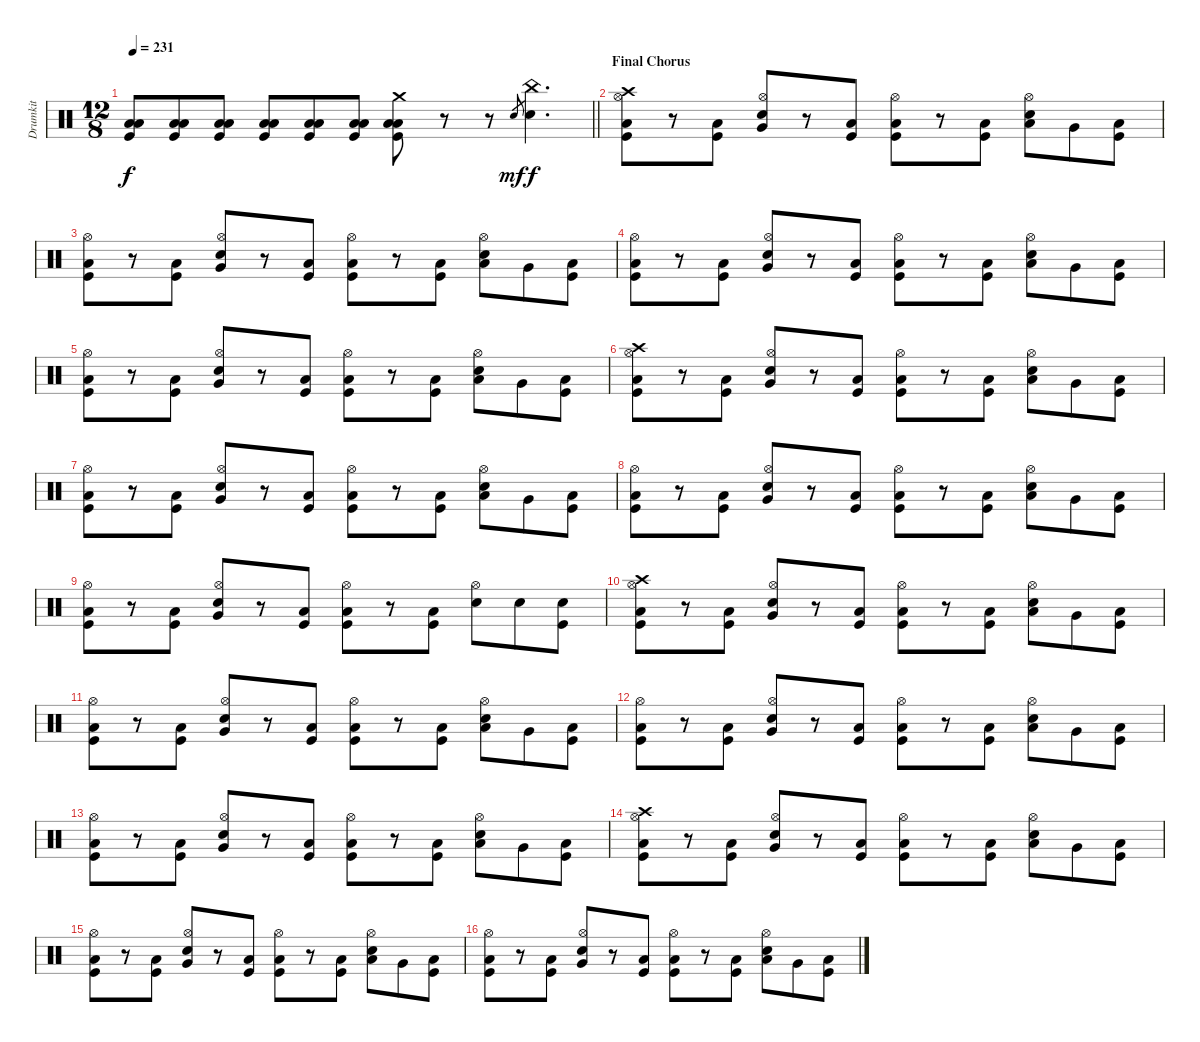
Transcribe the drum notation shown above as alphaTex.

\track ("Drumkit" "Drumkit") {instrument percussion}
\staff {score}
\articulation defaults
\ts (12 8)
\tempo 231
\clef neutral
\barLineRight lightlight
\ks c
("Low Tom (hit)" "Low Floor Tom (hit)" "Kick (hit)").8{dy f} ("Low Tom (hit)" "Low Floor Tom (hit)" "Kick (hit)").8 ("Low Tom (hit)" "Low Floor Tom (hit)" "Kick (hit)").8 ("Low Tom (hit)" "Low Floor Tom (hit)" "Kick (hit)").8 ("Low Tom (hit)" "Low Floor Tom (hit)" "Kick (hit)").8 ("Low Tom (hit)" "Low Floor Tom (hit)" "Kick (hit)").8 ("Crash medium (hit)" "Low Tom (hit)" "Low Floor Tom (hit)" "Kick (hit)").8 r.8 r.8 "Snare (hit)".8{gr dy mf} ("China (hit)" "Snare (hit) 2").4{d dy f} |
\section ("" "Final Chorus")
("Crash high (hit)" "Hi-Hat (open)" "Low Floor Tom (hit)" "Kick (hit)").8 r.8 ("Low Floor Tom (hit)" "Kick (hit)").8 ("Hi-Hat (open)" "Very Low Tom (hit)" "Snare (hit) 2").8 r.8 ("Low Floor Tom (hit)" "Kick (hit)").8 ("Hi-Hat (open)" "Low Floor Tom (hit)" "Kick (hit)").8 r.8 ("Low Floor Tom (hit)" "Kick (hit)").8 ("Hi-Hat (open)" "Low Tom (hit)" "Snare (hit) 2").8 "Very Low Tom (hit)".8 ("Low Floor Tom (hit)" "Kick (hit)").8 |
("Hi-Hat (open)" "Low Floor Tom (hit)" "Kick (hit)").8 r.8 ("Low Floor Tom (hit)" "Kick (hit)").8 ("Hi-Hat (open)" "Very Low Tom (hit)" "Snare (hit) 2").8 r.8 ("Low Floor Tom (hit)" "Kick (hit)").8 ("Hi-Hat (open)" "Low Floor Tom (hit)" "Kick (hit)").8 r.8 ("Low Floor Tom (hit)" "Kick (hit)").8 ("Hi-Hat (open)" "Low Tom (hit)" "Snare (hit) 2").8 "Very Low Tom (hit)".8 ("Low Floor Tom (hit)" "Kick (hit)").8 |
("Hi-Hat (open)" "Low Floor Tom (hit)" "Kick (hit)").8 r.8 ("Low Floor Tom (hit)" "Kick (hit)").8 ("Hi-Hat (open)" "Very Low Tom (hit)" "Snare (hit) 2").8 r.8 ("Low Floor Tom (hit)" "Kick (hit)").8 ("Hi-Hat (open)" "Low Floor Tom (hit)" "Kick (hit)").8 r.8 ("Low Floor Tom (hit)" "Kick (hit)").8 ("Hi-Hat (open)" "Low Tom (hit)" "Snare (hit) 2").8 "Very Low Tom (hit)".8 ("Low Floor Tom (hit)" "Kick (hit)").8 |
("Hi-Hat (open)" "Low Floor Tom (hit)" "Kick (hit)").8 r.8 ("Low Floor Tom (hit)" "Kick (hit)").8 ("Hi-Hat (open)" "Very Low Tom (hit)" "Snare (hit) 2").8 r.8 ("Low Floor Tom (hit)" "Kick (hit)").8 ("Hi-Hat (open)" "Low Floor Tom (hit)" "Kick (hit)").8 r.8 ("Low Floor Tom (hit)" "Kick (hit)").8 ("Hi-Hat (open)" "Low Tom (hit)" "Snare (hit) 2").8 "Very Low Tom (hit)".8 ("Low Floor Tom (hit)" "Kick (hit)").8 |
("Crash high (hit)" "Hi-Hat (open)" "Low Floor Tom (hit)" "Kick (hit)").8 r.8 ("Low Floor Tom (hit)" "Kick (hit)").8 ("Hi-Hat (open)" "Very Low Tom (hit)" "Snare (hit) 2").8 r.8 ("Low Floor Tom (hit)" "Kick (hit)").8 ("Hi-Hat (open)" "Low Floor Tom (hit)" "Kick (hit)").8 r.8 ("Low Floor Tom (hit)" "Kick (hit)").8 ("Hi-Hat (open)" "Low Tom (hit)" "Snare (hit) 2").8 "Very Low Tom (hit)".8 ("Low Floor Tom (hit)" "Kick (hit)").8 |
("Hi-Hat (open)" "Low Floor Tom (hit)" "Kick (hit)").8 r.8 ("Low Floor Tom (hit)" "Kick (hit)").8 ("Hi-Hat (open)" "Very Low Tom (hit)" "Snare (hit) 2").8 r.8 ("Low Floor Tom (hit)" "Kick (hit)").8 ("Hi-Hat (open)" "Low Floor Tom (hit)" "Kick (hit)").8 r.8 ("Low Floor Tom (hit)" "Kick (hit)").8 ("Hi-Hat (open)" "Low Tom (hit)" "Snare (hit) 2").8 "Very Low Tom (hit)".8 ("Low Floor Tom (hit)" "Kick (hit)").8 |
("Hi-Hat (open)" "Low Floor Tom (hit)" "Kick (hit)").8 r.8 ("Low Floor Tom (hit)" "Kick (hit)").8 ("Hi-Hat (open)" "Very Low Tom (hit)" "Snare (hit) 2").8 r.8 ("Low Floor Tom (hit)" "Kick (hit)").8 ("Hi-Hat (open)" "Low Floor Tom (hit)" "Kick (hit)").8 r.8 ("Low Floor Tom (hit)" "Kick (hit)").8 ("Hi-Hat (open)" "Low Tom (hit)" "Snare (hit) 2").8 "Very Low Tom (hit)".8 ("Low Floor Tom (hit)" "Kick (hit)").8 |
("Hi-Hat (open)" "Low Floor Tom (hit)" "Kick (hit)").8 r.8 ("Low Floor Tom (hit)" "Kick (hit)").8 ("Hi-Hat (open)" "Very Low Tom (hit)" "Snare (hit) 2").8 r.8 ("Low Floor Tom (hit)" "Kick (hit)").8 ("Hi-Hat (open)" "Low Floor Tom (hit)" "Kick (hit)").8 r.8 ("Low Floor Tom (hit)" "Kick (hit)").8 ("Hi-Hat (open)" "Snare (hit) 2").8 "Snare (hit) 2".8 ("Snare (hit) 2" "Kick (hit)").8 |
("Crash high (hit)" "Hi-Hat (open)" "Low Floor Tom (hit)" "Kick (hit)").8 r.8 ("Low Floor Tom (hit)" "Kick (hit)").8 ("Hi-Hat (open)" "Very Low Tom (hit)" "Snare (hit) 2").8 r.8 ("Low Floor Tom (hit)" "Kick (hit)").8 ("Hi-Hat (open)" "Low Floor Tom (hit)" "Kick (hit)").8 r.8 ("Low Floor Tom (hit)" "Kick (hit)").8 ("Hi-Hat (open)" "Low Tom (hit)" "Snare (hit) 2").8 "Very Low Tom (hit)".8 ("Low Floor Tom (hit)" "Kick (hit)").8 |
("Hi-Hat (open)" "Low Floor Tom (hit)" "Kick (hit)").8 r.8 ("Low Floor Tom (hit)" "Kick (hit)").8 ("Hi-Hat (open)" "Very Low Tom (hit)" "Snare (hit) 2").8 r.8 ("Low Floor Tom (hit)" "Kick (hit)").8 ("Hi-Hat (open)" "Low Floor Tom (hit)" "Kick (hit)").8 r.8 ("Low Floor Tom (hit)" "Kick (hit)").8 ("Hi-Hat (open)" "Low Tom (hit)" "Snare (hit) 2").8 "Very Low Tom (hit)".8 ("Low Floor Tom (hit)" "Kick (hit)").8 |
("Hi-Hat (open)" "Low Floor Tom (hit)" "Kick (hit)").8 r.8 ("Low Floor Tom (hit)" "Kick (hit)").8 ("Hi-Hat (open)" "Very Low Tom (hit)" "Snare (hit) 2").8 r.8 ("Low Floor Tom (hit)" "Kick (hit)").8 ("Hi-Hat (open)" "Low Floor Tom (hit)" "Kick (hit)").8 r.8 ("Low Floor Tom (hit)" "Kick (hit)").8 ("Hi-Hat (open)" "Low Tom (hit)" "Snare (hit) 2").8 "Very Low Tom (hit)".8 ("Low Floor Tom (hit)" "Kick (hit)").8 |
("Hi-Hat (open)" "Low Floor Tom (hit)" "Kick (hit)").8 r.8 ("Low Floor Tom (hit)" "Kick (hit)").8 ("Hi-Hat (open)" "Very Low Tom (hit)" "Snare (hit) 2").8 r.8 ("Low Floor Tom (hit)" "Kick (hit)").8 ("Hi-Hat (open)" "Low Floor Tom (hit)" "Kick (hit)").8 r.8 ("Low Floor Tom (hit)" "Kick (hit)").8 ("Hi-Hat (open)" "Low Tom (hit)" "Snare (hit) 2").8 "Very Low Tom (hit)".8 ("Low Floor Tom (hit)" "Kick (hit)").8 |
("Crash high (hit)" "Hi-Hat (open)" "Low Floor Tom (hit)" "Kick (hit)").8 r.8 ("Low Floor Tom (hit)" "Kick (hit)").8 ("Hi-Hat (open)" "Very Low Tom (hit)" "Snare (hit) 2").8 r.8 ("Low Floor Tom (hit)" "Kick (hit)").8 ("Hi-Hat (open)" "Low Floor Tom (hit)" "Kick (hit)").8 r.8 ("Low Floor Tom (hit)" "Kick (hit)").8 ("Hi-Hat (open)" "Low Tom (hit)" "Snare (hit) 2").8 "Very Low Tom (hit)".8 ("Low Floor Tom (hit)" "Kick (hit)").8 |
("Hi-Hat (open)" "Low Floor Tom (hit)" "Kick (hit)").8 r.8 ("Low Floor Tom (hit)" "Kick (hit)").8 ("Hi-Hat (open)" "Very Low Tom (hit)" "Snare (hit) 2").8 r.8 ("Low Floor Tom (hit)" "Kick (hit)").8 ("Hi-Hat (open)" "Low Floor Tom (hit)" "Kick (hit)").8 r.8 ("Low Floor Tom (hit)" "Kick (hit)").8 ("Hi-Hat (open)" "Low Tom (hit)" "Snare (hit) 2").8 "Very Low Tom (hit)".8 ("Low Floor Tom (hit)" "Kick (hit)").8 |
("Hi-Hat (open)" "Low Floor Tom (hit)" "Kick (hit)").8 r.8 ("Low Floor Tom (hit)" "Kick (hit)").8 ("Hi-Hat (open)" "Very Low Tom (hit)" "Snare (hit) 2").8 r.8 ("Low Floor Tom (hit)" "Kick (hit)").8 ("Hi-Hat (open)" "Low Floor Tom (hit)" "Kick (hit)").8 r.8 ("Low Floor Tom (hit)" "Kick (hit)").8 ("Hi-Hat (open)" "Low Tom (hit)" "Snare (hit) 2").8 "Very Low Tom (hit)".8 ("Low Floor Tom (hit)" "Kick (hit)").8
